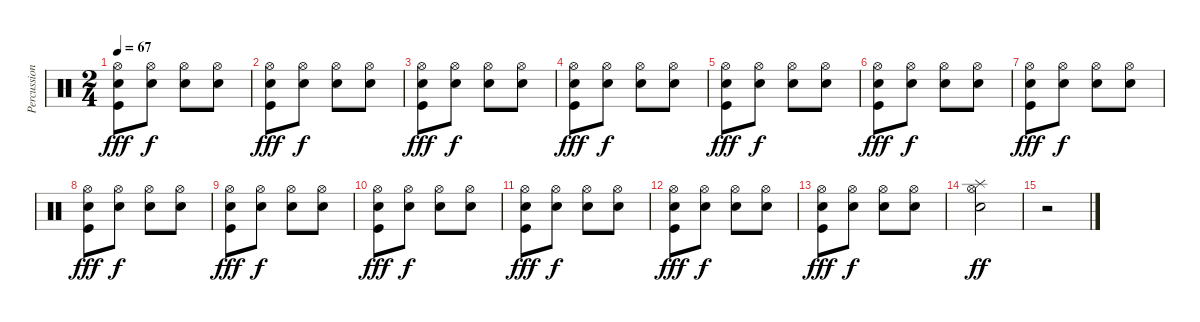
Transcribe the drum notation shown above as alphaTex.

\track ("Percussions" "Percussion") {instrument percussion}
\staff {score}
\articulation defaults
\ts (2 4)
\tempo 67
\clef neutral
\ks c
("Hi-Hat (open)" "Snare (hit) 2" "Kick (hit)").8{dy fff} ("Hi-Hat (open)" "Snare (hit) 2").8{dy f} ("Hi-Hat (open)" "Snare (hit) 2").8 ("Hi-Hat (open)" "Snare (hit) 2").8 |
("Hi-Hat (open)" "Snare (hit) 2" "Kick (hit)").8{dy fff} ("Hi-Hat (open)" "Snare (hit) 2").8{dy f} ("Hi-Hat (open)" "Snare (hit) 2").8 ("Hi-Hat (open)" "Snare (hit) 2").8 |
("Hi-Hat (open)" "Snare (hit) 2" "Kick (hit)").8{dy fff} ("Hi-Hat (open)" "Snare (hit) 2").8{dy f} ("Hi-Hat (open)" "Snare (hit) 2").8 ("Hi-Hat (open)" "Snare (hit) 2").8 |
("Hi-Hat (open)" "Snare (hit) 2" "Kick (hit)").8{dy fff} ("Hi-Hat (open)" "Snare (hit) 2").8{dy f} ("Hi-Hat (open)" "Snare (hit) 2").8 ("Hi-Hat (open)" "Snare (hit) 2").8 |
("Hi-Hat (open)" "Snare (hit) 2" "Kick (hit)").8{dy fff} ("Hi-Hat (open)" "Snare (hit) 2").8{dy f} ("Hi-Hat (open)" "Snare (hit) 2").8 ("Hi-Hat (open)" "Snare (hit) 2").8 |
("Hi-Hat (open)" "Snare (hit) 2" "Kick (hit)").8{dy fff} ("Hi-Hat (open)" "Snare (hit) 2").8{dy f} ("Hi-Hat (open)" "Snare (hit) 2").8 ("Hi-Hat (open)" "Snare (hit) 2").8 |
("Hi-Hat (open)" "Snare (hit) 2" "Kick (hit)").8{dy fff} ("Hi-Hat (open)" "Snare (hit) 2").8{dy f} ("Hi-Hat (open)" "Snare (hit) 2").8 ("Hi-Hat (open)" "Snare (hit) 2").8 |
("Hi-Hat (open)" "Snare (hit) 2" "Kick (hit)").8{dy fff} ("Hi-Hat (open)" "Snare (hit) 2").8{dy f} ("Hi-Hat (open)" "Snare (hit) 2").8 ("Hi-Hat (open)" "Snare (hit) 2").8 |
("Hi-Hat (open)" "Snare (hit) 2" "Kick (hit)").8{dy fff} ("Hi-Hat (open)" "Snare (hit) 2").8{dy f} ("Hi-Hat (open)" "Snare (hit) 2").8 ("Hi-Hat (open)" "Snare (hit) 2").8 |
("Hi-Hat (open)" "Snare (hit) 2" "Kick (hit)").8{dy fff} ("Hi-Hat (open)" "Snare (hit) 2").8{dy f} ("Hi-Hat (open)" "Snare (hit) 2").8 ("Hi-Hat (open)" "Snare (hit) 2").8 |
("Hi-Hat (open)" "Snare (hit) 2" "Kick (hit)").8{dy fff} ("Hi-Hat (open)" "Snare (hit) 2").8{dy f} ("Hi-Hat (open)" "Snare (hit) 2").8 ("Hi-Hat (open)" "Snare (hit) 2").8 |
("Hi-Hat (open)" "Snare (hit) 2" "Kick (hit)").8{dy fff} ("Hi-Hat (open)" "Snare (hit) 2").8{dy f} ("Hi-Hat (open)" "Snare (hit) 2").8 ("Hi-Hat (open)" "Snare (hit) 2").8 |
("Hi-Hat (open)" "Snare (hit) 2" "Kick (hit)").8{dy fff} ("Hi-Hat (open)" "Snare (hit) 2").8{dy f} ("Hi-Hat (open)" "Snare (hit) 2").8 ("Hi-Hat (open)" "Snare (hit) 2").8 |
("Hi-Hat (open)" "Splash (hit)" "Snare (hit) 2").2{dy ff} |
r.2
